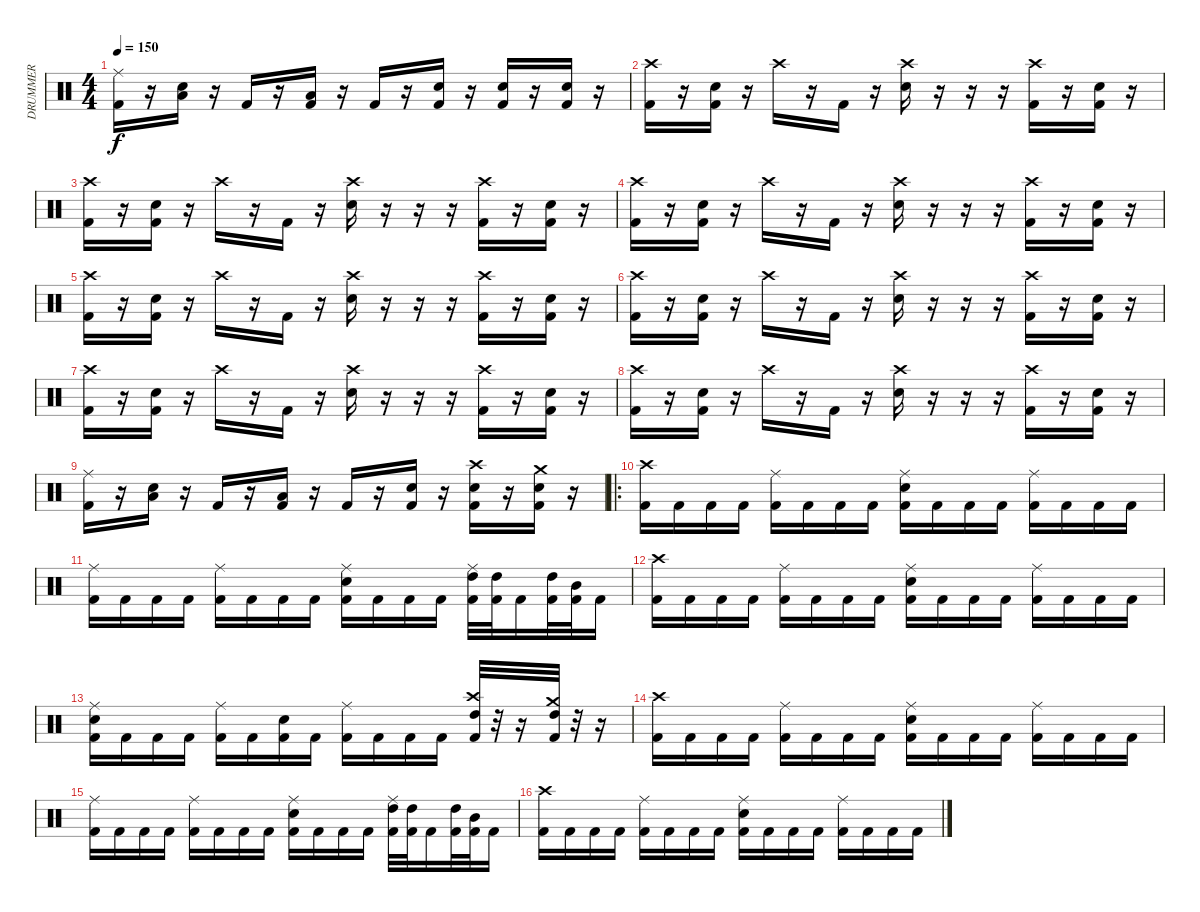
\track ("DRUMMER" "DRUMMER") {instrument percussion}
\staff {score}
\articulation defaults
\ts (4 4)
\tempo 150
\clef neutral
\ks c
("Ride (middle)" "Kick (hit) 2").16{dy f} r.16 ("Low Tom (hit)" "Electric Snare (hit)").16 r.16 "Kick (hit) 2".16 r.16 ("Low Tom (hit)" "Kick (hit) 2").16 r.16 "Kick (hit) 2".16 r.16 ("Electric Snare (hit)" "Kick (hit) 2").16 r.16 ("Electric Snare (hit)" "Kick (hit) 2").16 r.16 ("Electric Snare (hit)" "Kick (hit) 2").16 r.16 |
("Crash high (hit)" "Kick (hit) 2").16 r.16 ("Electric Snare (hit)" "Kick (hit) 2").16 r.16 "Crash high (hit)".16 r.16 "Kick (hit) 2".16 r.16 ("Crash high (hit)" "Electric Snare (hit)").16 r.16 r.16 r.16 ("Crash high (hit)" "Kick (hit) 2").16 r.16 ("Electric Snare (hit)" "Kick (hit) 2").16 r.16 |
("Crash high (hit)" "Kick (hit) 2").16 r.16 ("Electric Snare (hit)" "Kick (hit) 2").16 r.16 "Crash high (hit)".16 r.16 "Kick (hit) 2".16 r.16 ("Crash high (hit)" "Electric Snare (hit)").16 r.16 r.16 r.16 ("Crash high (hit)" "Kick (hit) 2").16 r.16 ("Electric Snare (hit)" "Kick (hit) 2").16 r.16 |
("Crash high (hit)" "Kick (hit) 2").16 r.16 ("Electric Snare (hit)" "Kick (hit) 2").16 r.16 "Crash high (hit)".16 r.16 "Kick (hit) 2".16 r.16 ("Crash high (hit)" "Electric Snare (hit)").16 r.16 r.16 r.16 ("Crash high (hit)" "Kick (hit) 2").16 r.16 ("Electric Snare (hit)" "Kick (hit) 2").16 r.16 |
("Crash high (hit)" "Kick (hit) 2").16 r.16 ("Electric Snare (hit)" "Kick (hit) 2").16 r.16 "Crash high (hit)".16 r.16 "Kick (hit) 2".16 r.16 ("Crash high (hit)" "Electric Snare (hit)").16 r.16 r.16 r.16 ("Crash high (hit)" "Kick (hit) 2").16 r.16 ("Electric Snare (hit)" "Kick (hit) 2").16 r.16 |
("Crash high (hit)" "Kick (hit) 2").16 r.16 ("Electric Snare (hit)" "Kick (hit) 2").16 r.16 "Crash high (hit)".16 r.16 "Kick (hit) 2".16 r.16 ("Crash high (hit)" "Electric Snare (hit)").16 r.16 r.16 r.16 ("Crash high (hit)" "Kick (hit) 2").16 r.16 ("Electric Snare (hit)" "Kick (hit) 2").16 r.16 |
("Crash high (hit)" "Kick (hit) 2").16 r.16 ("Electric Snare (hit)" "Kick (hit) 2").16 r.16 "Crash high (hit)".16 r.16 "Kick (hit) 2".16 r.16 ("Crash high (hit)" "Electric Snare (hit)").16 r.16 r.16 r.16 ("Crash high (hit)" "Kick (hit) 2").16 r.16 ("Electric Snare (hit)" "Kick (hit) 2").16 r.16 |
("Crash high (hit)" "Kick (hit) 2").16 r.16 ("Electric Snare (hit)" "Kick (hit) 2").16 r.16 "Crash high (hit)".16 r.16 "Kick (hit) 2".16 r.16 ("Crash high (hit)" "Electric Snare (hit)").16 r.16 r.16 r.16 ("Crash high (hit)" "Kick (hit) 2").16 r.16 ("Electric Snare (hit)" "Kick (hit) 2").16 r.16 |
("Ride (middle)" "Kick (hit) 2").16 r.16 ("Low Tom (hit)" "Electric Snare (hit)").16 r.16 "Kick (hit) 2".16 r.16 ("Low Tom (hit)" "Kick (hit) 2").16 r.16 "Kick (hit) 2".16 r.16 ("Electric Snare (hit)" "Kick (hit) 2").16 r.16 ("Crash high (hit)" "Electric Snare (hit)" "Kick (hit) 2").16 r.16 ("Crash medium (hit)" "Electric Snare (hit)" "Kick (hit) 2").16 r.16 |
\ro
("Crash high (hit)" "Kick (hit) 2").16 "Kick (hit) 2".16 "Kick (hit) 2".16 "Kick (hit) 2".16 ("Ride (middle)" "Kick (hit) 2").16 "Kick (hit) 2".16 "Kick (hit) 2".16 "Kick (hit) 2".16 ("Ride (middle)" "Electric Snare (hit)" "Kick (hit) 2").16 "Kick (hit) 2".16 "Kick (hit) 2".16 "Kick (hit) 2".16 ("Ride (middle)" "Kick (hit) 2").16 "Kick (hit) 2".16 "Kick (hit) 2".16 "Kick (hit) 2".16 |
("Ride (middle)" "Kick (hit) 2").16 "Kick (hit) 2".16 "Kick (hit) 2".16 "Kick (hit) 2".16 ("Ride (middle)" "Kick (hit) 2").16 "Kick (hit) 2".16 "Kick (hit) 2".16 "Kick (hit) 2".16 ("Ride (middle)" "Electric Snare (hit)" "Kick (hit) 2").16 "Kick (hit) 2".16 "Kick (hit) 2".16 "Kick (hit) 2".16 ("Ride (middle)" "High Tom (hit)" "Kick (hit) 2").32 ("High Tom (hit)" "Kick (hit) 2").32 "Kick (hit) 2".16 ("High Tom (hit)" "Kick (hit) 2").32 ("Mid Tom (hit)" "Kick (hit) 2").32 "Kick (hit) 2".16 |
("Crash high (hit)" "Kick (hit) 2").16 "Kick (hit) 2".16 "Kick (hit) 2".16 "Kick (hit) 2".16 ("Ride (middle)" "Kick (hit) 2").16 "Kick (hit) 2".16 "Kick (hit) 2".16 "Kick (hit) 2".16 ("Ride (middle)" "Electric Snare (hit)" "Kick (hit) 2").16 "Kick (hit) 2".16 "Kick (hit) 2".16 "Kick (hit) 2".16 ("Ride (middle)" "Kick (hit) 2").16 "Kick (hit) 2".16 "Kick (hit) 2".16 "Kick (hit) 2".16 |
("Ride (middle)" "Electric Snare (hit)" "Kick (hit) 2").16 "Kick (hit) 2".16 "Kick (hit) 2".16 "Kick (hit) 2".16 ("Ride (middle)" "Kick (hit) 2").16 "Kick (hit) 2".16 ("Electric Snare (hit)" "Kick (hit) 2").16 "Kick (hit) 2".16 ("Ride (middle)" "Kick (hit) 2").16 "Kick (hit) 2".16 "Kick (hit) 2".16 "Kick (hit) 2".16 ("Crash high (hit)" "High Tom (hit)" "Kick (hit) 2").32 r.32 r.16 ("Crash medium (hit)" "High Tom (hit)" "Kick (hit) 2").32 r.32 r.16 |
("Crash high (hit)" "Kick (hit) 2").16 "Kick (hit) 2".16 "Kick (hit) 2".16 "Kick (hit) 2".16 ("Ride (middle)" "Kick (hit) 2").16 "Kick (hit) 2".16 "Kick (hit) 2".16 "Kick (hit) 2".16 ("Ride (middle)" "Electric Snare (hit)" "Kick (hit) 2").16 "Kick (hit) 2".16 "Kick (hit) 2".16 "Kick (hit) 2".16 ("Ride (middle)" "Kick (hit) 2").16 "Kick (hit) 2".16 "Kick (hit) 2".16 "Kick (hit) 2".16 |
("Ride (middle)" "Kick (hit) 2").16 "Kick (hit) 2".16 "Kick (hit) 2".16 "Kick (hit) 2".16 ("Ride (middle)" "Kick (hit) 2").16 "Kick (hit) 2".16 "Kick (hit) 2".16 "Kick (hit) 2".16 ("Ride (middle)" "Electric Snare (hit)" "Kick (hit) 2").16 "Kick (hit) 2".16 "Kick (hit) 2".16 "Kick (hit) 2".16 ("Ride (middle)" "High Tom (hit)" "Kick (hit) 2").32 ("High Tom (hit)" "Kick (hit) 2").32 "Kick (hit) 2".16 ("High Tom (hit)" "Kick (hit) 2").32 ("Mid Tom (hit)" "Kick (hit) 2").32 "Kick (hit) 2".16 |
("Crash high (hit)" "Kick (hit) 2").16 "Kick (hit) 2".16 "Kick (hit) 2".16 "Kick (hit) 2".16 ("Ride (middle)" "Kick (hit) 2").16 "Kick (hit) 2".16 "Kick (hit) 2".16 "Kick (hit) 2".16 ("Ride (middle)" "Electric Snare (hit)" "Kick (hit) 2").16 "Kick (hit) 2".16 "Kick (hit) 2".16 "Kick (hit) 2".16 ("Ride (middle)" "Kick (hit) 2").16 "Kick (hit) 2".16 "Kick (hit) 2".16 "Kick (hit) 2".16
